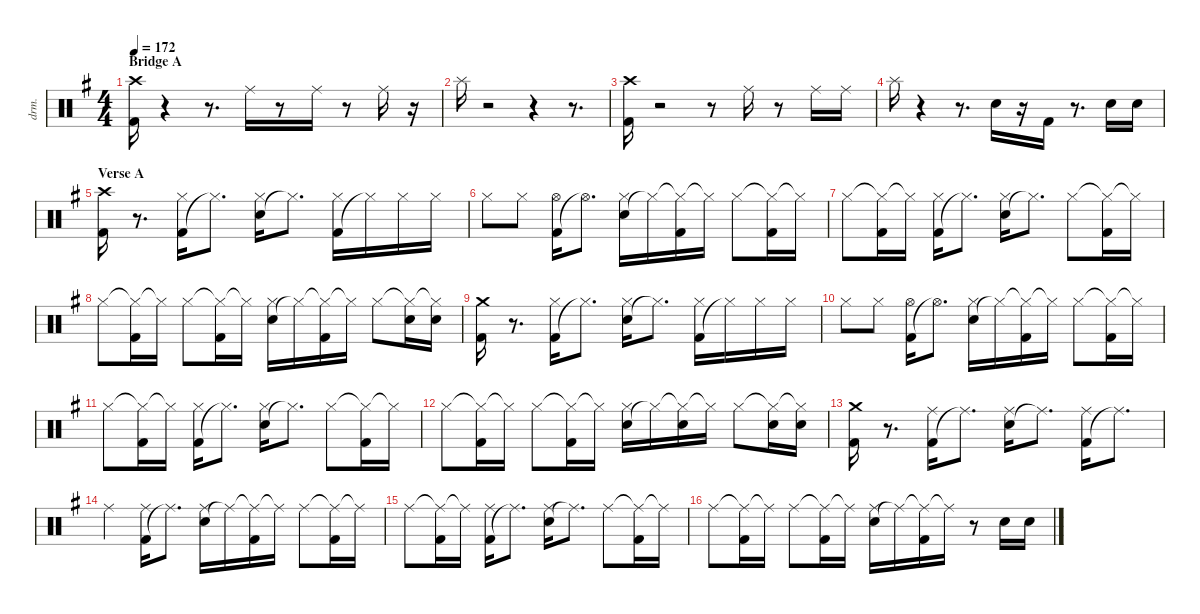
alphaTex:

\defaultSystemsLayout 4
\hideDynamics
\bracketExtendMode nobrackets
\otherSystemsTrackNameOrientation horizontal
\track ("Shinya" "drm.") {instrument percussion}
\staff {score}
\articulation defaults
\ts (4 4)
\section ("" "Bridge A")
\tempo 172
\clef neutral
\ks eminor
("Kick (hit) 2"{acc forcenatural} "Crash high (hit)"{acc #}).16{dy fff beam Down} r.4{beam Down} r.8{d beam Down} "Ride (middle)"{acc #}.16{beam Down} r.8{beam Down} "Ride (middle)"{acc #}.16{beam Down} r.8{beam Down} "Ride (middle)"{acc #}.16{beam Down} r.16{beam Down} |
"Splash (hit)"{acc forcenatural}.16{beam Down} r.2{beam Down} r.4{beam Down} r.8{d beam Down} |
("Kick (hit) 2"{acc forcenatural} "Crash high (hit)"{acc #}).16{beam Down} r.2{beam Down} r.8{beam Down} "Ride (middle)"{acc #}.16{beam Down} r.8{beam Down} "Ride (middle)"{acc #}.16{beam Down} "Ride (middle)"{acc #}.16{beam Down} |
"Splash (hit)"{acc forcenatural}.16{beam Down} r.4{beam Down} r.8{d beam Down} "Snare (hit) 2"{acc forcenatural}.16{beam Down} r.16{beam Down} "Kick (hit) 2"{acc forcenatural}.16{beam Up} r.8{d beam Up} "Snare (hit) 2"{acc forcenatural}.16{beam Down} "Snare (hit) 2"{acc forcenatural}.16{beam Down} |
\section ("" "Verse A")
("Kick (hit) 2"{acc forcenatural} "Crash high (hit)"{acc #}).16{beam Down} r.8{d beam Down} ("Kick (hit) 2"{acc forcenatural} "Hi-Hat (closed)"{acc #}).16{beam Down} "Hi-Hat (closed)"{t acc #}.8{d beam Down} ("Snare (hit) 2"{acc forcenatural} "Hi-Hat (closed)"{acc #}).16{beam Down} "Hi-Hat (closed)"{t acc #}.8{d beam Down} ("Kick (hit) 2"{acc forcenatural} "Hi-Hat (closed)"{acc #}).16{beam Down} "Hi-Hat (closed)"{t acc #}.16{beam Down} "Hi-Hat (closed)"{acc #}.16{beam Down} "Hi-Hat (closed)"{acc #}.16{beam Down} |
"Hi-Hat (closed)"{acc #}.8{beam Down} "Hi-Hat (closed)"{acc #}.8{beam Down} ("Kick (hit) 2"{acc forcenatural} "Hi-Hat (open)"{acc #}).16{beam Down} "Hi-Hat (open)"{t acc #}.8{d beam Down} ("Snare (hit) 2"{acc forcenatural} "Hi-Hat (closed)"{acc #}).16{beam Down} "Hi-Hat (closed)"{t acc #}.16{beam Down} ("Hi-Hat (closed)"{t acc #} "Kick (hit) 2"{acc forcenatural}).16{beam Down} "Hi-Hat (closed)"{t acc #}.16{beam Down} "Hi-Hat (closed)"{acc #}.8{beam Down} ("Hi-Hat (closed)"{t acc #} "Kick (hit) 2"{acc forcenatural}).16{beam Down} "Hi-Hat (closed)"{t acc #}.16{beam Down} |
"Hi-Hat (closed)"{acc #}.8{beam Down} ("Hi-Hat (closed)"{t acc #} "Kick (hit) 2"{acc forcenatural}).16{beam Down} "Hi-Hat (closed)"{t acc #}.16{beam Down} ("Kick (hit) 2"{acc forcenatural} "Hi-Hat (closed)"{acc #}).16{beam Down} "Hi-Hat (closed)"{t acc #}.8{d beam Down} ("Snare (hit) 2"{acc forcenatural} "Hi-Hat (closed)"{acc #}).16{beam Down} "Hi-Hat (closed)"{t acc #}.8{d beam Down} "Hi-Hat (closed)"{acc #}.8{beam Down} ("Hi-Hat (closed)"{t acc #} "Kick (hit) 2"{acc forcenatural}).16{beam Down} "Hi-Hat (closed)"{t acc #}.16{beam Down} |
"Hi-Hat (closed)"{acc #}.8{beam Down} ("Hi-Hat (closed)"{t acc #} "Kick (hit) 2"{acc forcenatural}).16{beam Down} "Hi-Hat (closed)"{t acc #}.16{beam Down} "Hi-Hat (closed)"{acc #}.8{beam Down} ("Hi-Hat (closed)"{t acc #} "Kick (hit) 2"{acc forcenatural}).16{beam Down} "Hi-Hat (closed)"{t acc #}.16{beam Down} ("Snare (hit) 2"{acc forcenatural} "Hi-Hat (closed)"{acc #}).16{beam Down} "Hi-Hat (closed)"{t acc #}.16{beam Down} ("Hi-Hat (closed)"{t acc #} "Kick (hit) 2"{acc forcenatural}).16{beam Down} "Hi-Hat (closed)"{t acc #}.16{beam Down} "Hi-Hat (closed)"{acc #}.8{beam Down} ("Hi-Hat (closed)"{t acc #} "Snare (hit) 2"{acc forcenatural}).16{beam Down} ("Hi-Hat (closed)"{t acc #} "Snare (hit) 2"{acc forcenatural}).16{beam Down} |
("Kick (hit) 2"{acc forcenatural} "Crash medium (hit)"{acc forcenatural}).16{beam Down} r.8{d beam Down} ("Kick (hit) 2"{acc forcenatural} "Hi-Hat (closed)"{acc #}).16{beam Down} "Hi-Hat (closed)"{t acc #}.8{d beam Down} ("Snare (hit) 2"{acc forcenatural} "Hi-Hat (closed)"{acc #}).16{beam Down} "Hi-Hat (closed)"{t acc #}.8{d beam Down} ("Kick (hit) 2"{acc forcenatural} "Hi-Hat (closed)"{acc #}).16{beam Down} "Hi-Hat (closed)"{t acc #}.16{beam Down} "Hi-Hat (closed)"{acc #}.16{beam Down} "Hi-Hat (closed)"{acc #}.16{beam Down} |
"Hi-Hat (closed)"{acc #}.8{beam Down} "Hi-Hat (closed)"{acc #}.8{beam Down} ("Kick (hit) 2"{acc forcenatural} "Hi-Hat (open)"{acc #}).16{beam Down} "Hi-Hat (open)"{t acc #}.8{d beam Down} ("Snare (hit) 2"{acc forcenatural} "Hi-Hat (closed)"{acc #}).16{beam Down} "Hi-Hat (closed)"{t acc #}.16{beam Down} ("Hi-Hat (closed)"{t acc #} "Kick (hit) 2"{acc forcenatural}).16{beam Down} "Hi-Hat (closed)"{t acc #}.16{beam Down} "Hi-Hat (closed)"{acc #}.8{beam Down} ("Hi-Hat (closed)"{t acc #} "Kick (hit) 2"{acc forcenatural}).16{beam Down} "Hi-Hat (closed)"{t acc #}.16{beam Down} |
"Hi-Hat (closed)"{acc #}.8{beam Down} ("Hi-Hat (closed)"{t acc #} "Kick (hit) 2"{acc forcenatural}).16{beam Down} "Hi-Hat (closed)"{t acc #}.16{beam Down} ("Kick (hit) 2"{acc forcenatural} "Hi-Hat (closed)"{acc #}).16{beam Down} "Hi-Hat (closed)"{t acc #}.8{d beam Down} ("Snare (hit) 2"{acc forcenatural} "Hi-Hat (closed)"{acc #}).16{beam Down} "Hi-Hat (closed)"{t acc #}.8{d beam Down} "Hi-Hat (closed)"{acc #}.8{beam Down} ("Hi-Hat (closed)"{t acc #} "Kick (hit) 2"{acc forcenatural}).16{beam Down} "Hi-Hat (closed)"{t acc #}.16{beam Down} |
"Hi-Hat (closed)"{acc #}.8{beam Down} ("Hi-Hat (closed)"{t acc #} "Kick (hit) 2"{acc forcenatural}).16{beam Down} "Hi-Hat (closed)"{t acc #}.16{beam Down} "Hi-Hat (closed)"{acc #}.8{beam Down} ("Hi-Hat (closed)"{t acc #} "Kick (hit) 2"{acc forcenatural}).16{beam Down} "Hi-Hat (closed)"{t acc #}.16{beam Down} ("Snare (hit) 2"{acc forcenatural} "Hi-Hat (closed)"{acc #}).16{beam Down} "Hi-Hat (closed)"{t acc #}.16{beam Down} ("Hi-Hat (closed)"{t acc #} "Snare (hit) 2"{acc forcenatural}).16{beam Down} "Hi-Hat (closed)"{t acc #}.16{beam Down} "Hi-Hat (closed)"{acc #}.8{beam Down} ("Hi-Hat (closed)"{t acc #} "Snare (hit) 2"{acc forcenatural}).16{beam Down} ("Hi-Hat (closed)"{t acc #} "Snare (hit) 2"{acc forcenatural}).16{beam Down} |
("Kick (hit) 2"{acc forcenatural} "Crash medium (hit)"{acc forcenatural}).16{beam Down} r.8{d beam Down} ("Kick (hit) 2"{acc forcenatural} "Ride (middle)"{acc #}).16{beam Down} "Ride (middle)"{t acc #}.8{d beam Down} ("Snare (hit) 2"{acc forcenatural} "Ride (middle)"{acc #}).16{beam Down} "Ride (middle)"{t acc #}.8{d beam Down} ("Kick (hit) 2"{acc forcenatural} "Ride (middle)"{acc #}).16{beam Down} "Ride (middle)"{t acc #}.8{d beam Down} |
"Ride (middle)"{acc #}.4{beam Down} ("Kick (hit) 2"{acc forcenatural} "Ride (middle)"{acc #}).16{beam Down} "Ride (middle)"{t acc #}.8{d beam Down} ("Snare (hit) 2"{acc forcenatural} "Ride (middle)"{acc #}).16{beam Down} "Ride (middle)"{t acc #}.16{beam Down} ("Ride (middle)"{t acc #} "Kick (hit) 2"{acc forcenatural}).16{beam Down} "Ride (middle)"{t acc #}.16{beam Down} "Ride (middle)"{acc #}.8{beam Down} ("Ride (middle)"{t acc #} "Kick (hit) 2"{acc forcenatural}).16{beam Down} "Ride (middle)"{t acc #}.16{beam Down} |
"Ride (middle)"{acc #}.8{beam Down} ("Ride (middle)"{t acc #} "Kick (hit) 2"{acc forcenatural}).16{beam Down} "Ride (middle)"{t acc #}.16{beam Down} ("Kick (hit) 2"{acc forcenatural} "Ride (middle)"{acc #}).16{beam Down} "Ride (middle)"{t acc #}.8{d beam Down} ("Snare (hit) 2"{acc forcenatural} "Ride (middle)"{acc #}).16{beam Down} "Ride (middle)"{t acc #}.8{d beam Down} "Ride (middle)"{acc #}.8{beam Down} ("Ride (middle)"{t acc #} "Kick (hit) 2"{acc forcenatural}).16{beam Down} "Ride (middle)"{t acc #}.16{beam Down} |
"Ride (middle)"{acc #}.8{beam Down} ("Ride (middle)"{t acc #} "Kick (hit) 2"{acc forcenatural}).16{beam Down} "Ride (middle)"{t acc #}.16{beam Down} "Ride (middle)"{acc #}.8{beam Down} ("Ride (middle)"{t acc #} "Kick (hit) 2"{acc forcenatural}).16{beam Down} "Ride (middle)"{t acc #}.16{beam Down} ("Snare (hit) 2"{acc forcenatural} "Ride (middle)"{acc #}).16{beam Down} "Ride (middle)"{t acc #}.16{beam Down} ("Ride (middle)"{t acc #} "Kick (hit) 2"{acc forcenatural}).16{beam Down} "Ride (middle)"{t acc #}.16{beam Down} r.8{beam Down} "Snare (hit) 2"{acc forcenatural}.16{beam Down} "Snare (hit) 2"{acc forcenatural}.16{beam Down}
